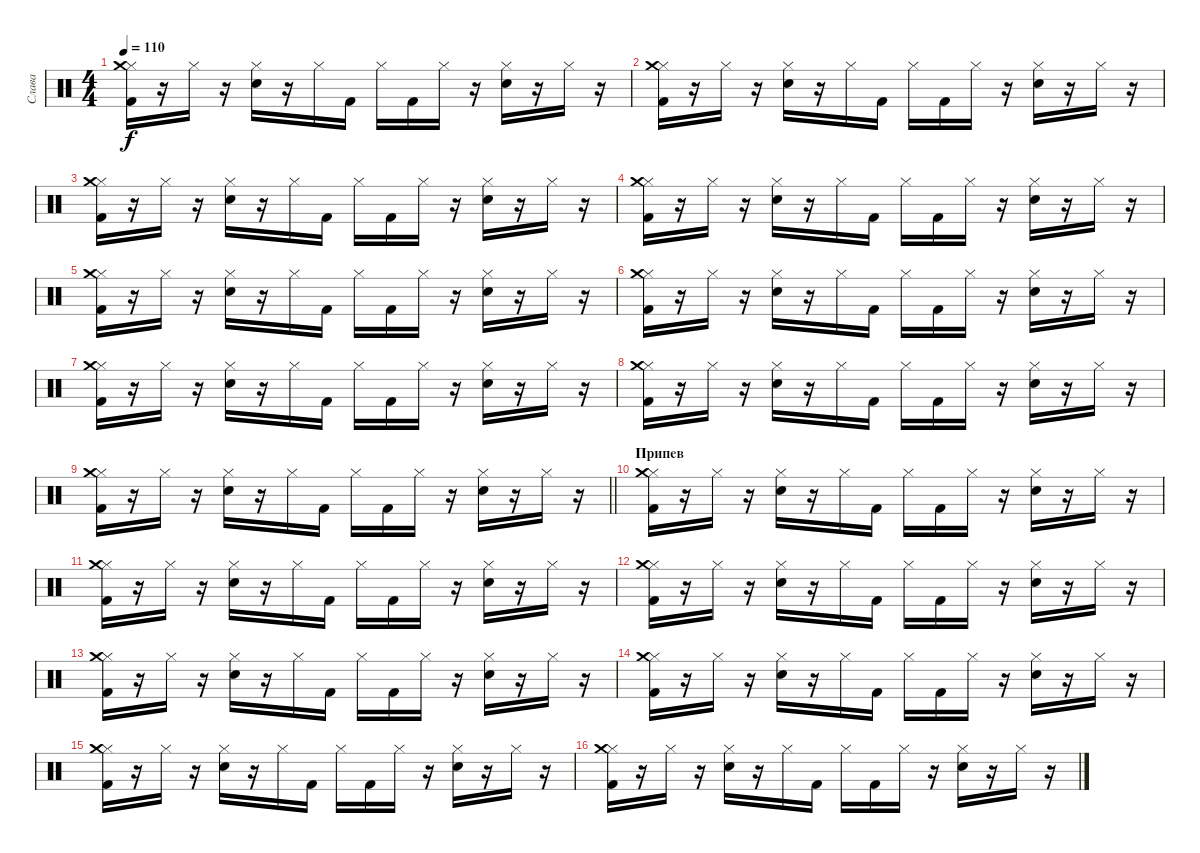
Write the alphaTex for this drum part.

\track ("Слава" "Слава") {instrument percussion}
\staff {score}
\articulation defaults
\ts (4 4)
\tempo 110
\clef neutral
\ks c
("Hi-Hat (closed)" "Crash medium (hit)" "Kick (hit) 2").16{dy f} r.16 "Hi-Hat (closed)".16 r.16 ("Hi-Hat (closed)" "Electric Snare (hit)").16 r.16 "Hi-Hat (closed)".16 "Kick (hit) 2".16 "Hi-Hat (closed)".16 "Kick (hit) 2".16 "Hi-Hat (closed)".16 r.16 ("Hi-Hat (closed)" "Electric Snare (hit)").16 r.16 "Hi-Hat (closed)".16 r.16 |
("Hi-Hat (closed)" "Crash medium (hit)" "Kick (hit) 2").16 r.16 "Hi-Hat (closed)".16 r.16 ("Hi-Hat (closed)" "Electric Snare (hit)").16 r.16 "Hi-Hat (closed)".16 "Kick (hit) 2".16 "Hi-Hat (closed)".16 "Kick (hit) 2".16 "Hi-Hat (closed)".16 r.16 ("Hi-Hat (closed)" "Electric Snare (hit)").16 r.16 "Hi-Hat (closed)".16 r.16 |
("Hi-Hat (closed)" "Crash medium (hit)" "Kick (hit) 2").16 r.16 "Hi-Hat (closed)".16 r.16 ("Hi-Hat (closed)" "Electric Snare (hit)").16 r.16 "Hi-Hat (closed)".16 "Kick (hit) 2".16 "Hi-Hat (closed)".16 "Kick (hit) 2".16 "Hi-Hat (closed)".16 r.16 ("Hi-Hat (closed)" "Electric Snare (hit)").16 r.16 "Hi-Hat (closed)".16 r.16 |
("Hi-Hat (closed)" "Crash medium (hit)" "Kick (hit) 2").16 r.16 "Hi-Hat (closed)".16 r.16 ("Hi-Hat (closed)" "Electric Snare (hit)").16 r.16 "Hi-Hat (closed)".16 "Kick (hit) 2".16 "Hi-Hat (closed)".16 "Kick (hit) 2".16 "Hi-Hat (closed)".16 r.16 ("Hi-Hat (closed)" "Electric Snare (hit)").16 r.16 "Hi-Hat (closed)".16 r.16 |
("Hi-Hat (closed)" "Crash medium (hit)" "Kick (hit) 2").16 r.16 "Hi-Hat (closed)".16 r.16 ("Hi-Hat (closed)" "Electric Snare (hit)").16 r.16 "Hi-Hat (closed)".16 "Kick (hit) 2".16 "Hi-Hat (closed)".16 "Kick (hit) 2".16 "Hi-Hat (closed)".16 r.16 ("Hi-Hat (closed)" "Electric Snare (hit)").16 r.16 "Hi-Hat (closed)".16 r.16 |
("Hi-Hat (closed)" "Crash medium (hit)" "Kick (hit) 2").16 r.16 "Hi-Hat (closed)".16 r.16 ("Hi-Hat (closed)" "Electric Snare (hit)").16 r.16 "Hi-Hat (closed)".16 "Kick (hit) 2".16 "Hi-Hat (closed)".16 "Kick (hit) 2".16 "Hi-Hat (closed)".16 r.16 ("Hi-Hat (closed)" "Electric Snare (hit)").16 r.16 "Hi-Hat (closed)".16 r.16 |
("Hi-Hat (closed)" "Crash medium (hit)" "Kick (hit) 2").16 r.16 "Hi-Hat (closed)".16 r.16 ("Hi-Hat (closed)" "Electric Snare (hit)").16 r.16 "Hi-Hat (closed)".16 "Kick (hit) 2".16 "Hi-Hat (closed)".16 "Kick (hit) 2".16 "Hi-Hat (closed)".16 r.16 ("Hi-Hat (closed)" "Electric Snare (hit)").16 r.16 "Hi-Hat (closed)".16 r.16 |
("Hi-Hat (closed)" "Crash medium (hit)" "Kick (hit) 2").16 r.16 "Hi-Hat (closed)".16 r.16 ("Hi-Hat (closed)" "Electric Snare (hit)").16 r.16 "Hi-Hat (closed)".16 "Kick (hit) 2".16 "Hi-Hat (closed)".16 "Kick (hit) 2".16 "Hi-Hat (closed)".16 r.16 ("Hi-Hat (closed)" "Electric Snare (hit)").16 r.16 "Hi-Hat (closed)".16 r.16 |
\barLineRight lightlight
("Hi-Hat (closed)" "Crash medium (hit)" "Kick (hit) 2").16 r.16 "Hi-Hat (closed)".16 r.16 ("Hi-Hat (closed)" "Electric Snare (hit)").16 r.16 "Hi-Hat (closed)".16 "Kick (hit) 2".16 "Hi-Hat (closed)".16 "Kick (hit) 2".16 "Hi-Hat (closed)".16 r.16 ("Hi-Hat (closed)" "Electric Snare (hit)").16 r.16 "Hi-Hat (closed)".16 r.16 |
\section ("" "Припев")
("Hi-Hat (closed)" "Crash medium (hit)" "Kick (hit) 2").16 r.16 "Hi-Hat (closed)".16 r.16 ("Hi-Hat (closed)" "Electric Snare (hit)").16 r.16 "Hi-Hat (closed)".16 "Kick (hit) 2".16 "Hi-Hat (closed)".16 "Kick (hit) 2".16 "Hi-Hat (closed)".16 r.16 ("Hi-Hat (closed)" "Electric Snare (hit)").16 r.16 "Hi-Hat (closed)".16 r.16 |
("Hi-Hat (closed)" "Crash medium (hit)" "Kick (hit) 2").16 r.16 "Hi-Hat (closed)".16 r.16 ("Hi-Hat (closed)" "Electric Snare (hit)").16 r.16 "Hi-Hat (closed)".16 "Kick (hit) 2".16 "Hi-Hat (closed)".16 "Kick (hit) 2".16 "Hi-Hat (closed)".16 r.16 ("Hi-Hat (closed)" "Electric Snare (hit)").16 r.16 "Hi-Hat (closed)".16 r.16 |
("Hi-Hat (closed)" "Crash medium (hit)" "Kick (hit) 2").16 r.16 "Hi-Hat (closed)".16 r.16 ("Hi-Hat (closed)" "Electric Snare (hit)").16 r.16 "Hi-Hat (closed)".16 "Kick (hit) 2".16 "Hi-Hat (closed)".16 "Kick (hit) 2".16 "Hi-Hat (closed)".16 r.16 ("Hi-Hat (closed)" "Electric Snare (hit)").16 r.16 "Hi-Hat (closed)".16 r.16 |
("Hi-Hat (closed)" "Crash medium (hit)" "Kick (hit) 2").16 r.16 "Hi-Hat (closed)".16 r.16 ("Hi-Hat (closed)" "Electric Snare (hit)").16 r.16 "Hi-Hat (closed)".16 "Kick (hit) 2".16 "Hi-Hat (closed)".16 "Kick (hit) 2".16 "Hi-Hat (closed)".16 r.16 ("Hi-Hat (closed)" "Electric Snare (hit)").16 r.16 "Hi-Hat (closed)".16 r.16 |
("Hi-Hat (closed)" "Crash medium (hit)" "Kick (hit) 2").16 r.16 "Hi-Hat (closed)".16 r.16 ("Hi-Hat (closed)" "Electric Snare (hit)").16 r.16 "Hi-Hat (closed)".16 "Kick (hit) 2".16 "Hi-Hat (closed)".16 "Kick (hit) 2".16 "Hi-Hat (closed)".16 r.16 ("Hi-Hat (closed)" "Electric Snare (hit)").16 r.16 "Hi-Hat (closed)".16 r.16 |
("Hi-Hat (closed)" "Crash medium (hit)" "Kick (hit) 2").16 r.16 "Hi-Hat (closed)".16 r.16 ("Hi-Hat (closed)" "Electric Snare (hit)").16 r.16 "Hi-Hat (closed)".16 "Kick (hit) 2".16 "Hi-Hat (closed)".16 "Kick (hit) 2".16 "Hi-Hat (closed)".16 r.16 ("Hi-Hat (closed)" "Electric Snare (hit)").16 r.16 "Hi-Hat (closed)".16 r.16 |
("Hi-Hat (closed)" "Crash medium (hit)" "Kick (hit) 2").16 r.16 "Hi-Hat (closed)".16 r.16 ("Hi-Hat (closed)" "Electric Snare (hit)").16 r.16 "Hi-Hat (closed)".16 "Kick (hit) 2".16 "Hi-Hat (closed)".16 "Kick (hit) 2".16 "Hi-Hat (closed)".16 r.16 ("Hi-Hat (closed)" "Electric Snare (hit)").16 r.16 "Hi-Hat (closed)".16 r.16
